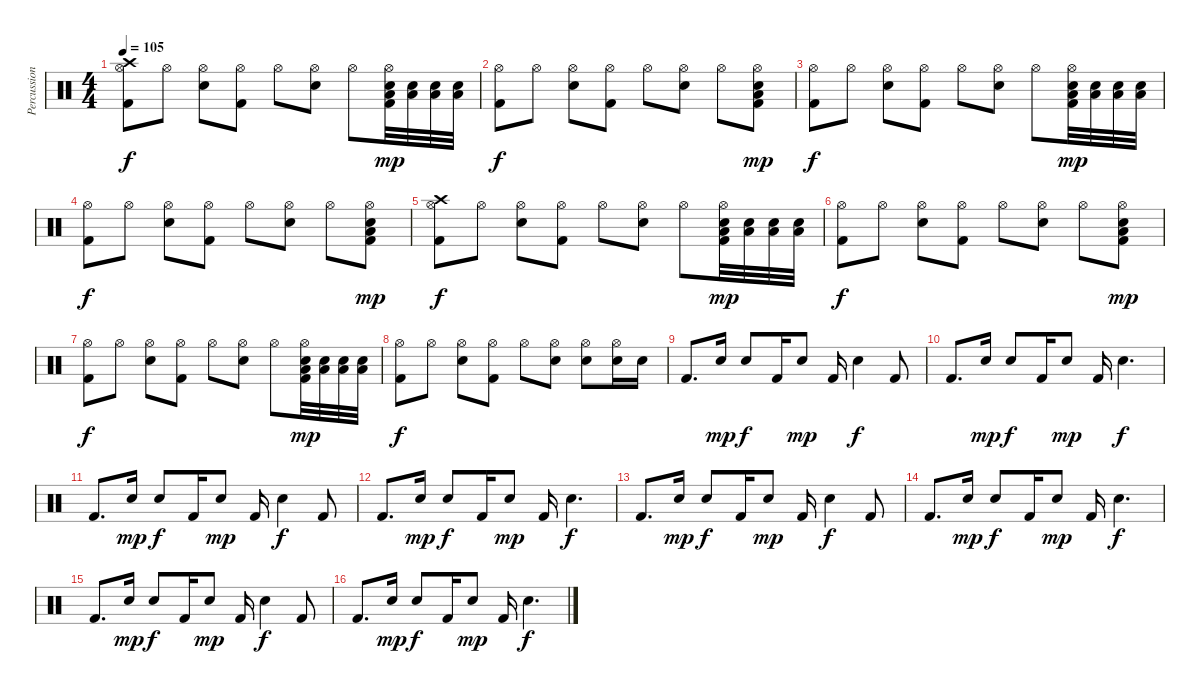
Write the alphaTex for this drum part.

\track ("Percussion" "Percussion") {instrument percussion}
\staff {score}
\articulation defaults
\ts (4 4)
\tempo 105
\clef neutral
\ks c
("Crash high (hit)" "Hi-Hat (open)" "Kick (hit) 2").8{dy f} "Hi-Hat (open)".8 ("Hi-Hat (open)" "Snare (hit) 2").8 ("Hi-Hat (open)" "Kick (hit) 2").8 "Hi-Hat (open)".8 ("Hi-Hat (open)" "Snare (hit) 2").8 "Hi-Hat (open)".8 ("Hi-Hat (open)" "Electric Snare (hit)" "Low Floor Tom (hit)" "Kick (hit) 2").32{dy mp} ("Electric Snare (hit)" "Low Floor Tom (hit)").32 ("Electric Snare (hit)" "Low Floor Tom (hit)").32 ("Electric Snare (hit)" "Low Floor Tom (hit)").32 |
("Hi-Hat (open)" "Kick (hit) 2").8{dy f} "Hi-Hat (open)".8 ("Hi-Hat (open)" "Snare (hit) 2").8 ("Hi-Hat (open)" "Kick (hit) 2").8 "Hi-Hat (open)".8 ("Hi-Hat (open)" "Snare (hit) 2").8 "Hi-Hat (open)".8 ("Hi-Hat (open)" "Electric Snare (hit)" "Low Floor Tom (hit)" "Kick (hit) 2").8{dy mp} |
("Hi-Hat (open)" "Kick (hit) 2").8{dy f} "Hi-Hat (open)".8 ("Hi-Hat (open)" "Snare (hit) 2").8 ("Hi-Hat (open)" "Kick (hit) 2").8 "Hi-Hat (open)".8 ("Hi-Hat (open)" "Snare (hit) 2").8 "Hi-Hat (open)".8 ("Hi-Hat (open)" "Electric Snare (hit)" "Low Floor Tom (hit)" "Kick (hit) 2").32{dy mp} ("Electric Snare (hit)" "Low Floor Tom (hit)").32 ("Electric Snare (hit)" "Low Floor Tom (hit)").32 ("Electric Snare (hit)" "Low Floor Tom (hit)").32 |
("Hi-Hat (open)" "Kick (hit) 2").8{dy f} "Hi-Hat (open)".8 ("Hi-Hat (open)" "Snare (hit) 2").8 ("Hi-Hat (open)" "Kick (hit) 2").8 "Hi-Hat (open)".8 ("Hi-Hat (open)" "Snare (hit) 2").8 "Hi-Hat (open)".8 ("Hi-Hat (open)" "Electric Snare (hit)" "Low Floor Tom (hit)" "Kick (hit) 2").8{dy mp} |
("Crash high (hit)" "Hi-Hat (open)" "Kick (hit) 2").8{dy f} "Hi-Hat (open)".8 ("Hi-Hat (open)" "Snare (hit) 2").8 ("Hi-Hat (open)" "Kick (hit) 2").8 "Hi-Hat (open)".8 ("Hi-Hat (open)" "Snare (hit) 2").8 "Hi-Hat (open)".8 ("Hi-Hat (open)" "Electric Snare (hit)" "Low Floor Tom (hit)" "Kick (hit) 2").32{dy mp} ("Electric Snare (hit)" "Low Floor Tom (hit)").32 ("Electric Snare (hit)" "Low Floor Tom (hit)").32 ("Electric Snare (hit)" "Low Floor Tom (hit)").32 |
("Hi-Hat (open)" "Kick (hit) 2").8{dy f} "Hi-Hat (open)".8 ("Hi-Hat (open)" "Snare (hit) 2").8 ("Hi-Hat (open)" "Kick (hit) 2").8 "Hi-Hat (open)".8 ("Hi-Hat (open)" "Snare (hit) 2").8 "Hi-Hat (open)".8 ("Hi-Hat (open)" "Electric Snare (hit)" "Low Floor Tom (hit)" "Kick (hit) 2").8{dy mp} |
("Hi-Hat (open)" "Kick (hit) 2").8{dy f} "Hi-Hat (open)".8 ("Hi-Hat (open)" "Snare (hit) 2").8 ("Hi-Hat (open)" "Kick (hit) 2").8 "Hi-Hat (open)".8 ("Hi-Hat (open)" "Snare (hit) 2").8 "Hi-Hat (open)".8 ("Hi-Hat (open)" "Electric Snare (hit)" "Low Floor Tom (hit)" "Kick (hit) 2").32{dy mp} ("Electric Snare (hit)" "Low Floor Tom (hit)").32 ("Electric Snare (hit)" "Low Floor Tom (hit)").32 ("Electric Snare (hit)" "Low Floor Tom (hit)").32 |
("Hi-Hat (open)" "Kick (hit) 2").8{dy f} "Hi-Hat (open)".8 ("Hi-Hat (open)" "Snare (hit) 2").8 ("Hi-Hat (open)" "Kick (hit) 2").8 "Hi-Hat (open)".8 ("Hi-Hat (open)" "Snare (hit) 2").8 ("Hi-Hat (open)" "Snare (hit) 2").8 ("Hi-Hat (open)" "Snare (hit) 2").16 "Snare (hit) 2".16 |
"Kick (hit) 2".8{d} "Snare (hit) 2".16{dy mp} "Snare (hit) 2".8{dy f} "Kick (hit) 2".16 "Snare (hit) 2".8{dy mp} "Kick (hit) 2".16 "Snare (hit) 2".4{dy f} "Kick (hit) 2".8 |
"Kick (hit) 2".8{d} "Snare (hit) 2".16{dy mp} "Snare (hit) 2".8{dy f} "Kick (hit) 2".16 "Snare (hit) 2".8{dy mp} "Kick (hit) 2".16 "Snare (hit) 2".4{d dy f} |
"Kick (hit) 2".8{d} "Snare (hit) 2".16{dy mp} "Snare (hit) 2".8{dy f} "Kick (hit) 2".16 "Snare (hit) 2".8{dy mp} "Kick (hit) 2".16 "Snare (hit) 2".4{dy f} "Kick (hit) 2".8 |
"Kick (hit) 2".8{d} "Snare (hit) 2".16{dy mp} "Snare (hit) 2".8{dy f} "Kick (hit) 2".16 "Snare (hit) 2".8{dy mp} "Kick (hit) 2".16 "Snare (hit) 2".4{d dy f} |
"Kick (hit) 2".8{d} "Snare (hit) 2".16{dy mp} "Snare (hit) 2".8{dy f} "Kick (hit) 2".16 "Snare (hit) 2".8{dy mp} "Kick (hit) 2".16 "Snare (hit) 2".4{dy f} "Kick (hit) 2".8 |
"Kick (hit) 2".8{d} "Snare (hit) 2".16{dy mp} "Snare (hit) 2".8{dy f} "Kick (hit) 2".16 "Snare (hit) 2".8{dy mp} "Kick (hit) 2".16 "Snare (hit) 2".4{d dy f} |
"Kick (hit) 2".8{d} "Snare (hit) 2".16{dy mp} "Snare (hit) 2".8{dy f} "Kick (hit) 2".16 "Snare (hit) 2".8{dy mp} "Kick (hit) 2".16 "Snare (hit) 2".4{dy f} "Kick (hit) 2".8 |
"Kick (hit) 2".8{d} "Snare (hit) 2".16{dy mp} "Snare (hit) 2".8{dy f} "Kick (hit) 2".16 "Snare (hit) 2".8{dy mp} "Kick (hit) 2".16 "Snare (hit) 2".4{d dy f}
